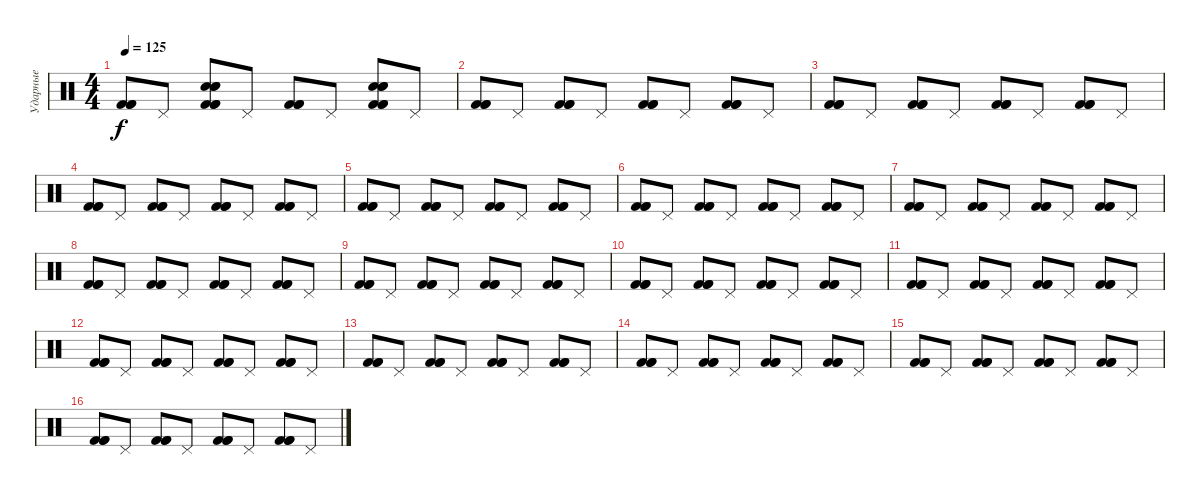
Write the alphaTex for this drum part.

\track ("Ударные" "Ударные") {instrument percussion}
\staff {score}
\articulation defaults
\ts (4 4)
\tempo 125
\clef neutral
\ks c
("Kick (hit) 2" "Kick (hit) 2" "Kick (hit) 2").8{dy f} "Pedal Hi-Hat (hit)".8 ("Snare (hit) 2" "Kick (hit) 2" "Snare (hit) 2" "Kick (hit) 2" "Snare (hit) 2" "Kick (hit) 2").8 "Pedal Hi-Hat (hit)".8 ("Kick (hit) 2" "Kick (hit) 2" "Kick (hit) 2").8 "Pedal Hi-Hat (hit)".8 ("Snare (hit) 2" "Kick (hit) 2" "Snare (hit) 2" "Kick (hit) 2" "Snare (hit) 2" "Kick (hit) 2").8 "Pedal Hi-Hat (hit)".8 |
("Kick (hit) 2" "Kick (hit) 2" "Kick (hit) 2").8 "Pedal Hi-Hat (hit)".8 ("Kick (hit) 2" "Kick (hit) 2" "Kick (hit) 2").8 "Pedal Hi-Hat (hit)".8 ("Kick (hit) 2" "Kick (hit) 2" "Kick (hit) 2").8 "Pedal Hi-Hat (hit)".8 ("Kick (hit) 2" "Kick (hit) 2" "Kick (hit) 2").8 "Pedal Hi-Hat (hit)".8 |
("Kick (hit) 2" "Kick (hit) 2" "Kick (hit) 2").8 "Pedal Hi-Hat (hit)".8 ("Kick (hit) 2" "Kick (hit) 2" "Kick (hit) 2").8 "Pedal Hi-Hat (hit)".8 ("Kick (hit) 2" "Kick (hit) 2" "Kick (hit) 2").8 "Pedal Hi-Hat (hit)".8 ("Kick (hit) 2" "Kick (hit) 2" "Kick (hit) 2").8 "Pedal Hi-Hat (hit)".8 |
("Kick (hit) 2" "Kick (hit) 2" "Kick (hit) 2").8 "Pedal Hi-Hat (hit)".8 ("Kick (hit) 2" "Kick (hit) 2" "Kick (hit) 2").8 "Pedal Hi-Hat (hit)".8 ("Kick (hit) 2" "Kick (hit) 2" "Kick (hit) 2").8 "Pedal Hi-Hat (hit)".8 ("Kick (hit) 2" "Kick (hit) 2" "Kick (hit) 2").8 "Pedal Hi-Hat (hit)".8 |
("Kick (hit) 2" "Kick (hit) 2" "Kick (hit) 2").8 "Pedal Hi-Hat (hit)".8 ("Kick (hit) 2" "Kick (hit) 2" "Kick (hit) 2").8 "Pedal Hi-Hat (hit)".8 ("Kick (hit) 2" "Kick (hit) 2" "Kick (hit) 2").8 "Pedal Hi-Hat (hit)".8 ("Kick (hit) 2" "Kick (hit) 2" "Kick (hit) 2").8 "Pedal Hi-Hat (hit)".8 |
("Kick (hit) 2" "Kick (hit) 2" "Kick (hit) 2").8 "Pedal Hi-Hat (hit)".8 ("Kick (hit) 2" "Kick (hit) 2" "Kick (hit) 2").8 "Pedal Hi-Hat (hit)".8 ("Kick (hit) 2" "Kick (hit) 2" "Kick (hit) 2").8 "Pedal Hi-Hat (hit)".8 ("Kick (hit) 2" "Kick (hit) 2" "Kick (hit) 2").8 "Pedal Hi-Hat (hit)".8 |
("Kick (hit) 2" "Kick (hit) 2" "Kick (hit) 2").8 "Pedal Hi-Hat (hit)".8 ("Kick (hit) 2" "Kick (hit) 2" "Kick (hit) 2").8 "Pedal Hi-Hat (hit)".8 ("Kick (hit) 2" "Kick (hit) 2" "Kick (hit) 2").8 "Pedal Hi-Hat (hit)".8 ("Kick (hit) 2" "Kick (hit) 2" "Kick (hit) 2").8 "Pedal Hi-Hat (hit)".8 |
("Kick (hit) 2" "Kick (hit) 2" "Kick (hit) 2").8 "Pedal Hi-Hat (hit)".8 ("Kick (hit) 2" "Kick (hit) 2" "Kick (hit) 2").8 "Pedal Hi-Hat (hit)".8 ("Kick (hit) 2" "Kick (hit) 2" "Kick (hit) 2").8 "Pedal Hi-Hat (hit)".8 ("Kick (hit) 2" "Kick (hit) 2" "Kick (hit) 2").8 "Pedal Hi-Hat (hit)".8 |
("Kick (hit) 2" "Kick (hit) 2" "Kick (hit) 2").8 "Pedal Hi-Hat (hit)".8 ("Kick (hit) 2" "Kick (hit) 2" "Kick (hit) 2").8 "Pedal Hi-Hat (hit)".8 ("Kick (hit) 2" "Kick (hit) 2" "Kick (hit) 2").8 "Pedal Hi-Hat (hit)".8 ("Kick (hit) 2" "Kick (hit) 2" "Kick (hit) 2").8 "Pedal Hi-Hat (hit)".8 |
("Kick (hit) 2" "Kick (hit) 2" "Kick (hit) 2").8 "Pedal Hi-Hat (hit)".8 ("Kick (hit) 2" "Kick (hit) 2" "Kick (hit) 2").8 "Pedal Hi-Hat (hit)".8 ("Kick (hit) 2" "Kick (hit) 2" "Kick (hit) 2").8 "Pedal Hi-Hat (hit)".8 ("Kick (hit) 2" "Kick (hit) 2" "Kick (hit) 2").8 "Pedal Hi-Hat (hit)".8 |
("Kick (hit) 2" "Kick (hit) 2" "Kick (hit) 2").8 "Pedal Hi-Hat (hit)".8 ("Kick (hit) 2" "Kick (hit) 2" "Kick (hit) 2").8 "Pedal Hi-Hat (hit)".8 ("Kick (hit) 2" "Kick (hit) 2" "Kick (hit) 2").8 "Pedal Hi-Hat (hit)".8 ("Kick (hit) 2" "Kick (hit) 2" "Kick (hit) 2").8 "Pedal Hi-Hat (hit)".8 |
("Kick (hit) 2" "Kick (hit) 2" "Kick (hit) 2").8 "Pedal Hi-Hat (hit)".8 ("Kick (hit) 2" "Kick (hit) 2" "Kick (hit) 2").8 "Pedal Hi-Hat (hit)".8 ("Kick (hit) 2" "Kick (hit) 2" "Kick (hit) 2").8 "Pedal Hi-Hat (hit)".8 ("Kick (hit) 2" "Kick (hit) 2" "Kick (hit) 2").8 "Pedal Hi-Hat (hit)".8 |
("Kick (hit) 2" "Kick (hit) 2" "Kick (hit) 2").8 "Pedal Hi-Hat (hit)".8 ("Kick (hit) 2" "Kick (hit) 2" "Kick (hit) 2").8 "Pedal Hi-Hat (hit)".8 ("Kick (hit) 2" "Kick (hit) 2" "Kick (hit) 2").8 "Pedal Hi-Hat (hit)".8 ("Kick (hit) 2" "Kick (hit) 2" "Kick (hit) 2").8 "Pedal Hi-Hat (hit)".8 |
("Kick (hit) 2" "Kick (hit) 2" "Kick (hit) 2").8 "Pedal Hi-Hat (hit)".8 ("Kick (hit) 2" "Kick (hit) 2" "Kick (hit) 2").8 "Pedal Hi-Hat (hit)".8 ("Kick (hit) 2" "Kick (hit) 2" "Kick (hit) 2").8 "Pedal Hi-Hat (hit)".8 ("Kick (hit) 2" "Kick (hit) 2" "Kick (hit) 2").8 "Pedal Hi-Hat (hit)".8 |
("Kick (hit) 2" "Kick (hit) 2" "Kick (hit) 2").8 "Pedal Hi-Hat (hit)".8 ("Kick (hit) 2" "Kick (hit) 2" "Kick (hit) 2").8 "Pedal Hi-Hat (hit)".8 ("Kick (hit) 2" "Kick (hit) 2" "Kick (hit) 2").8 "Pedal Hi-Hat (hit)".8 ("Kick (hit) 2" "Kick (hit) 2" "Kick (hit) 2").8 "Pedal Hi-Hat (hit)".8 |
("Kick (hit) 2" "Kick (hit) 2" "Kick (hit) 2").8 "Pedal Hi-Hat (hit)".8 ("Kick (hit) 2" "Kick (hit) 2" "Kick (hit) 2").8 "Pedal Hi-Hat (hit)".8 ("Kick (hit) 2" "Kick (hit) 2" "Kick (hit) 2").8 "Pedal Hi-Hat (hit)".8 ("Kick (hit) 2" "Kick (hit) 2" "Kick (hit) 2").8 "Pedal Hi-Hat (hit)".8
